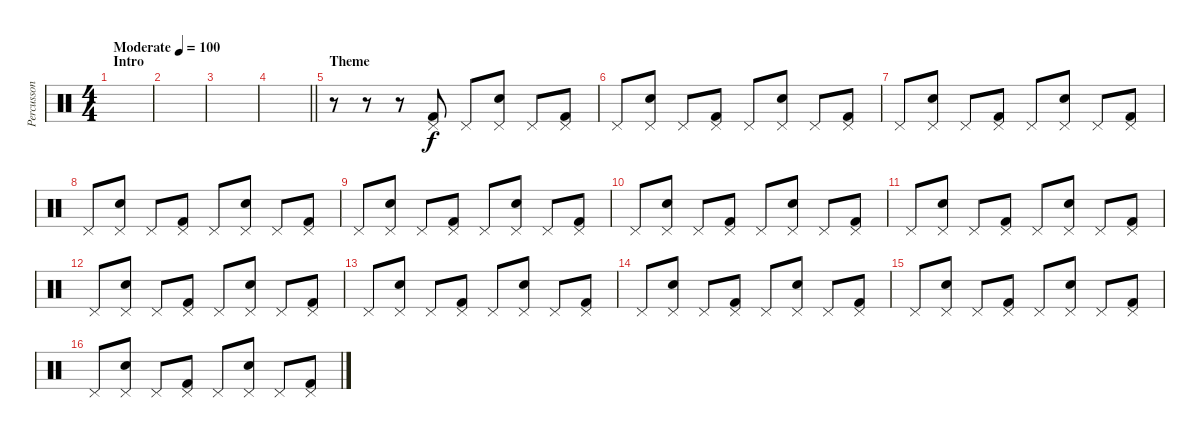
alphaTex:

\track ("Percusson" "Percusson") {instrument percussion}
\staff {score}
\articulation defaults
\ts (4 4)
\section ("" "Intro")
\tempo (100 "Moderate")
\clef neutral
\ks c
|
|
|
\barLineRight lightlight
|
\section ("" "Theme")
r.8 r.8 r.8 ("Pedal Hi-Hat (hit)" "Kick (hit) 2").8 "Pedal Hi-Hat (hit)".8 ("Pedal Hi-Hat (hit)" "Electric Snare (hit)").8 "Pedal Hi-Hat (hit)".8 ("Pedal Hi-Hat (hit)" "Kick (hit) 2").8 |
"Pedal Hi-Hat (hit)".8 ("Pedal Hi-Hat (hit)" "Electric Snare (hit)").8 "Pedal Hi-Hat (hit)".8 ("Pedal Hi-Hat (hit)" "Kick (hit) 2").8 "Pedal Hi-Hat (hit)".8 ("Pedal Hi-Hat (hit)" "Electric Snare (hit)").8 "Pedal Hi-Hat (hit)".8 ("Pedal Hi-Hat (hit)" "Kick (hit) 2").8 |
"Pedal Hi-Hat (hit)".8 ("Pedal Hi-Hat (hit)" "Electric Snare (hit)").8 "Pedal Hi-Hat (hit)".8 ("Pedal Hi-Hat (hit)" "Kick (hit) 2").8 "Pedal Hi-Hat (hit)".8 ("Pedal Hi-Hat (hit)" "Electric Snare (hit)").8 "Pedal Hi-Hat (hit)".8 ("Pedal Hi-Hat (hit)" "Kick (hit) 2").8 |
"Pedal Hi-Hat (hit)".8 ("Pedal Hi-Hat (hit)" "Electric Snare (hit)").8 "Pedal Hi-Hat (hit)".8 ("Pedal Hi-Hat (hit)" "Kick (hit) 2").8 "Pedal Hi-Hat (hit)".8 ("Pedal Hi-Hat (hit)" "Electric Snare (hit)").8 "Pedal Hi-Hat (hit)".8 ("Pedal Hi-Hat (hit)" "Kick (hit) 2").8 |
"Pedal Hi-Hat (hit)".8 ("Pedal Hi-Hat (hit)" "Electric Snare (hit)").8 "Pedal Hi-Hat (hit)".8 ("Pedal Hi-Hat (hit)" "Kick (hit) 2").8 "Pedal Hi-Hat (hit)".8 ("Pedal Hi-Hat (hit)" "Electric Snare (hit)").8 "Pedal Hi-Hat (hit)".8 ("Pedal Hi-Hat (hit)" "Kick (hit) 2").8 |
"Pedal Hi-Hat (hit)".8 ("Pedal Hi-Hat (hit)" "Electric Snare (hit)").8 "Pedal Hi-Hat (hit)".8 ("Pedal Hi-Hat (hit)" "Kick (hit) 2").8 "Pedal Hi-Hat (hit)".8 ("Pedal Hi-Hat (hit)" "Electric Snare (hit)").8 "Pedal Hi-Hat (hit)".8 ("Pedal Hi-Hat (hit)" "Kick (hit) 2").8 |
"Pedal Hi-Hat (hit)".8 ("Pedal Hi-Hat (hit)" "Electric Snare (hit)").8 "Pedal Hi-Hat (hit)".8 ("Pedal Hi-Hat (hit)" "Kick (hit) 2").8 "Pedal Hi-Hat (hit)".8 ("Pedal Hi-Hat (hit)" "Electric Snare (hit)").8 "Pedal Hi-Hat (hit)".8 ("Pedal Hi-Hat (hit)" "Kick (hit) 2").8 |
"Pedal Hi-Hat (hit)".8 ("Pedal Hi-Hat (hit)" "Electric Snare (hit)").8 "Pedal Hi-Hat (hit)".8 ("Pedal Hi-Hat (hit)" "Kick (hit) 2").8 "Pedal Hi-Hat (hit)".8 ("Pedal Hi-Hat (hit)" "Electric Snare (hit)").8 "Pedal Hi-Hat (hit)".8 ("Pedal Hi-Hat (hit)" "Kick (hit) 2").8 |
"Pedal Hi-Hat (hit)".8 ("Pedal Hi-Hat (hit)" "Electric Snare (hit)").8 "Pedal Hi-Hat (hit)".8 ("Pedal Hi-Hat (hit)" "Kick (hit) 2").8 "Pedal Hi-Hat (hit)".8 ("Pedal Hi-Hat (hit)" "Electric Snare (hit)").8 "Pedal Hi-Hat (hit)".8 ("Pedal Hi-Hat (hit)" "Kick (hit) 2").8 |
"Pedal Hi-Hat (hit)".8 ("Pedal Hi-Hat (hit)" "Electric Snare (hit)").8 "Pedal Hi-Hat (hit)".8 ("Pedal Hi-Hat (hit)" "Kick (hit) 2").8 "Pedal Hi-Hat (hit)".8 ("Pedal Hi-Hat (hit)" "Electric Snare (hit)").8 "Pedal Hi-Hat (hit)".8 ("Pedal Hi-Hat (hit)" "Kick (hit) 2").8 |
"Pedal Hi-Hat (hit)".8 ("Pedal Hi-Hat (hit)" "Electric Snare (hit)").8 "Pedal Hi-Hat (hit)".8 ("Pedal Hi-Hat (hit)" "Kick (hit) 2").8 "Pedal Hi-Hat (hit)".8 ("Pedal Hi-Hat (hit)" "Electric Snare (hit)").8 "Pedal Hi-Hat (hit)".8 ("Pedal Hi-Hat (hit)" "Kick (hit) 2").8 |
"Pedal Hi-Hat (hit)".8 ("Pedal Hi-Hat (hit)" "Electric Snare (hit)").8 "Pedal Hi-Hat (hit)".8 ("Pedal Hi-Hat (hit)" "Kick (hit) 2").8 "Pedal Hi-Hat (hit)".8 ("Pedal Hi-Hat (hit)" "Electric Snare (hit)").8 "Pedal Hi-Hat (hit)".8 ("Pedal Hi-Hat (hit)" "Kick (hit) 2").8
